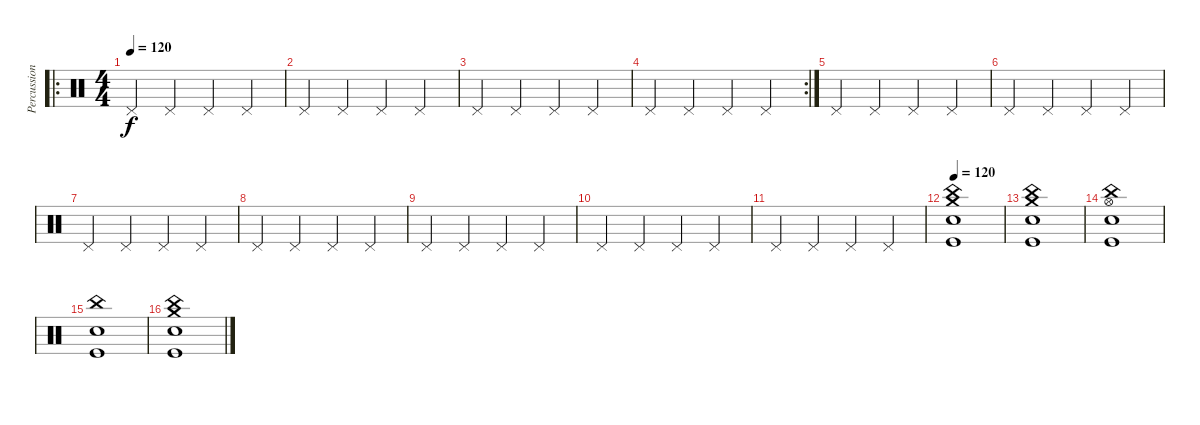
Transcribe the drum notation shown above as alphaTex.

\track ("Percussion" "Percussion") {instrument percussion}
\staff {score}
\articulation defaults
\ro
\ts (4 4)
\tempo 120
\tempo 116
\tempo 120
\clef neutral
\ks c "Pedal Hi-Hat (hit)".4{dy f volume 3} "Pedal Hi-Hat (hit)".4 "Pedal Hi-Hat (hit)".4 "Pedal Hi-Hat (hit)".4
|
"Pedal Hi-Hat (hit)".4{volume 3} "Pedal Hi-Hat (hit)".4 "Pedal Hi-Hat (hit)".4 "Pedal Hi-Hat (hit)".4 |
"Pedal Hi-Hat (hit)".4{volume 3} "Pedal Hi-Hat (hit)".4 "Pedal Hi-Hat (hit)".4 "Pedal Hi-Hat (hit)".4 |
\rc 2 "Pedal Hi-Hat (hit)".4{volume 3} "Pedal Hi-Hat (hit)".4 "Pedal Hi-Hat (hit)".4 "Pedal Hi-Hat (hit)".4
|
"Pedal Hi-Hat (hit)".4{volume 3} "Pedal Hi-Hat (hit)".4 "Pedal Hi-Hat (hit)".4 "Pedal Hi-Hat (hit)".4 |
"Pedal Hi-Hat (hit)".4{volume 3} "Pedal Hi-Hat (hit)".4 "Pedal Hi-Hat (hit)".4 "Pedal Hi-Hat (hit)".4 |
"Pedal Hi-Hat (hit)".4{volume 3} "Pedal Hi-Hat (hit)".4 "Pedal Hi-Hat (hit)".4 "Pedal Hi-Hat (hit)".4 |
"Pedal Hi-Hat (hit)".4{volume 3} "Pedal Hi-Hat (hit)".4 "Pedal Hi-Hat (hit)".4 "Pedal Hi-Hat (hit)".4 |
"Pedal Hi-Hat (hit)".4{volume 3} "Pedal Hi-Hat (hit)".4 "Pedal Hi-Hat (hit)".4 "Pedal Hi-Hat (hit)".4 |
"Pedal Hi-Hat (hit)".4{volume 3} "Pedal Hi-Hat (hit)".4 "Pedal Hi-Hat (hit)".4 "Pedal Hi-Hat (hit)".4 |
"Pedal Hi-Hat (hit)".4{volume 3} "Pedal Hi-Hat (hit)".4 "Pedal Hi-Hat (hit)".4 "Pedal Hi-Hat (hit)".4 |
\tempo 120
("Kick (hit)" "Electric Snare (hit)" "China (hit)" "Crash medium (hit)").1{volume 14} |
("Kick (hit)" "Electric Snare (hit)" "China (hit)" "Crash medium (hit)").1 |
("Kick (hit)" "Electric Snare (hit)" "Hi-Hat (open)" "China (hit)").1 |
("Kick (hit)" "Electric Snare (hit)" "China (hit)").1 |
("Kick (hit)" "Electric Snare (hit)" "China (hit)" "Crash medium (hit)").1
